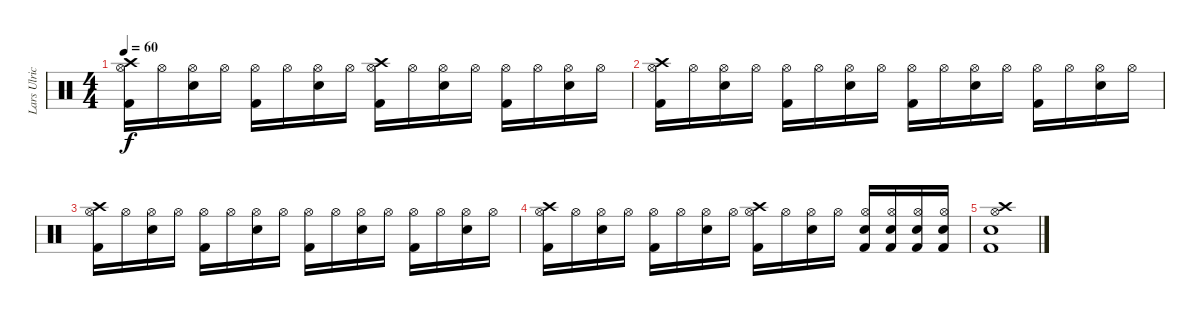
\track ("Lars Ulrich" "Lars Ulric") {instrument percussion}
\staff {score}
\articulation defaults
\ts (4 4)
\tempo 60
\clef neutral
\ks c
("Kick (hit) 2" "Hi-Hat (open)" "Crash high (hit)").16{dy f} "Hi-Hat (open)".16 ("Snare (hit) 2" "Hi-Hat (open)").16 "Hi-Hat (open)".16 ("Kick (hit) 2" "Hi-Hat (open)").16 "Hi-Hat (open)".16 ("Snare (hit) 2" "Hi-Hat (open)").16 "Hi-Hat (open)".16 ("Kick (hit) 2" "Hi-Hat (open)" "Crash high (hit)").16 "Hi-Hat (open)".16 ("Snare (hit) 2" "Hi-Hat (open)").16 "Hi-Hat (open)".16 ("Kick (hit) 2" "Hi-Hat (open)").16 "Hi-Hat (open)".16 ("Snare (hit) 2" "Hi-Hat (open)").16 "Hi-Hat (open)".16 |
("Kick (hit) 2" "Hi-Hat (open)" "Crash high (hit)").16 "Hi-Hat (open)".16 ("Snare (hit) 2" "Hi-Hat (open)").16 "Hi-Hat (open)".16 ("Kick (hit) 2" "Hi-Hat (open)").16 "Hi-Hat (open)".16 ("Snare (hit) 2" "Hi-Hat (open)").16 "Hi-Hat (open)".16 ("Kick (hit) 2" "Hi-Hat (open)").16 "Hi-Hat (open)".16 ("Snare (hit) 2" "Hi-Hat (open)").16 "Hi-Hat (open)".16 ("Kick (hit) 2" "Hi-Hat (open)").16 "Hi-Hat (open)".16 ("Snare (hit) 2" "Hi-Hat (open)").16 "Hi-Hat (open)".16 |
("Kick (hit) 2" "Hi-Hat (open)" "Crash high (hit)").16 "Hi-Hat (open)".16 ("Snare (hit) 2" "Hi-Hat (open)").16 "Hi-Hat (open)".16 ("Kick (hit) 2" "Hi-Hat (open)").16 "Hi-Hat (open)".16 ("Snare (hit) 2" "Hi-Hat (open)").16 "Hi-Hat (open)".16 ("Kick (hit) 2" "Hi-Hat (open)").16 "Hi-Hat (open)".16 ("Snare (hit) 2" "Hi-Hat (open)").16 "Hi-Hat (open)".16 ("Kick (hit) 2" "Hi-Hat (open)").16 "Hi-Hat (open)".16 ("Snare (hit) 2" "Hi-Hat (open)").16 "Hi-Hat (open)".16 |
("Kick (hit) 2" "Hi-Hat (open)" "Crash high (hit)").16 "Hi-Hat (open)".16 ("Snare (hit) 2" "Hi-Hat (open)").16 "Hi-Hat (open)".16 ("Kick (hit) 2" "Hi-Hat (open)").16 "Hi-Hat (open)".16 ("Snare (hit) 2" "Hi-Hat (open)").16 "Hi-Hat (open)".16 ("Kick (hit) 2" "Hi-Hat (open)" "Crash high (hit)").16 "Hi-Hat (open)".16 ("Snare (hit) 2" "Hi-Hat (open)").16 "Hi-Hat (open)".16 ("Kick (hit) 2" "Hi-Hat (open)" "Electric Snare (hit)").16 ("Kick (hit) 2" "Hi-Hat (open)" "Electric Snare (hit)").16 ("Kick (hit) 2" "Hi-Hat (open)" "Electric Snare (hit)").16 ("Kick (hit) 2" "Hi-Hat (open)" "Electric Snare (hit)").16 |
("Kick (hit) 2" "Snare (hit) 2" "Hi-Hat (open)" "Crash high (hit)").1
